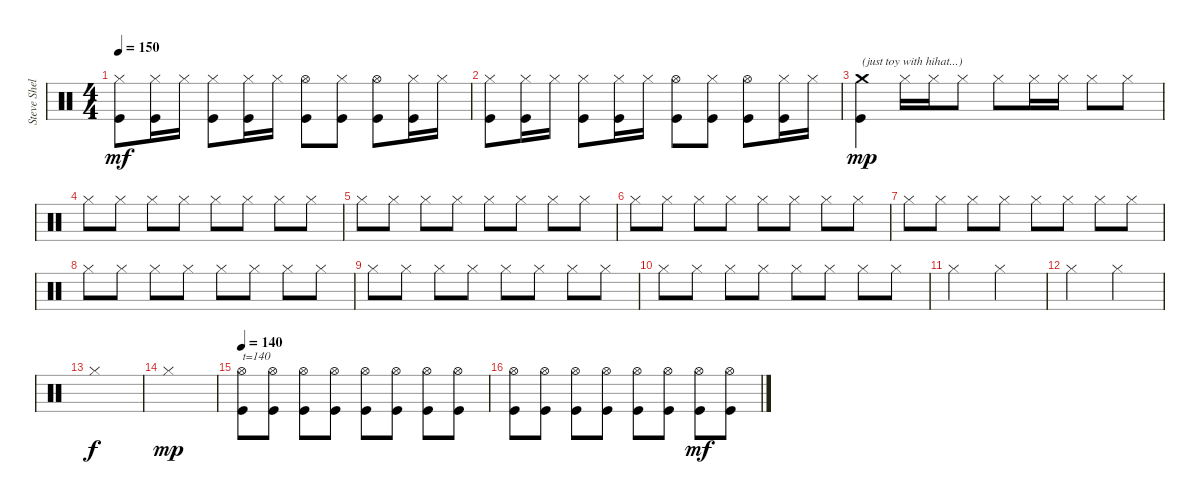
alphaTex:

\track ("Steve Shelley" "Steve Shel") {instrument percussion}
\staff {score}
\articulation defaults
\ts (4 4)
\tempo 150
\clef neutral
\ks c
("Hi-Hat (closed)" "Kick (hit)").8{dy mf} ("Hi-Hat (closed)" "Kick (hit)").16 "Hi-Hat (closed)".16 ("Hi-Hat (closed)" "Kick (hit)").8 ("Hi-Hat (closed)" "Kick (hit)").16 "Hi-Hat (closed)".16 ("Hi-Hat (open)" "Kick (hit)").8 ("Hi-Hat (closed)" "Kick (hit)").8 ("Hi-Hat (open)" "Kick (hit)").8 ("Hi-Hat (closed)" "Kick (hit)").16 "Hi-Hat (closed)".16 |
("Hi-Hat (closed)" "Kick (hit)").8 ("Hi-Hat (closed)" "Kick (hit)").16 "Hi-Hat (closed)".16 ("Hi-Hat (closed)" "Kick (hit)").8 ("Hi-Hat (closed)" "Kick (hit)").16 "Hi-Hat (closed)".16 ("Hi-Hat (open)" "Kick (hit)").8 ("Hi-Hat (closed)" "Kick (hit)").8 ("Hi-Hat (open)" "Kick (hit)").8 ("Hi-Hat (closed)" "Kick (hit)").16 "Hi-Hat (closed)".16 |
("Crash medium (hit)" "Kick (hit)").4{txt "(just toy with hihat...)" dy mp} "Hi-Hat (closed)".16 "Hi-Hat (closed)".16 "Hi-Hat (closed)".8 "Hi-Hat (closed)".8 "Hi-Hat (closed)".16 "Hi-Hat (closed)".16 "Hi-Hat (closed)".8 "Hi-Hat (closed)".8 |
"Hi-Hat (closed)".8 "Hi-Hat (closed)".8 "Hi-Hat (closed)".8 "Hi-Hat (closed)".8 "Hi-Hat (closed)".8 "Hi-Hat (closed)".8 "Hi-Hat (closed)".8 "Hi-Hat (closed)".8 |
"Hi-Hat (closed)".8 "Hi-Hat (closed)".8 "Hi-Hat (closed)".8 "Hi-Hat (closed)".8 "Hi-Hat (closed)".8 "Hi-Hat (closed)".8 "Hi-Hat (closed)".8 "Hi-Hat (closed)".8 |
"Hi-Hat (closed)".8 "Hi-Hat (closed)".8 "Hi-Hat (closed)".8 "Hi-Hat (closed)".8 "Hi-Hat (closed)".8 "Hi-Hat (closed)".8 "Hi-Hat (closed)".8 "Hi-Hat (closed)".8 |
"Hi-Hat (closed)".8 "Hi-Hat (closed)".8 "Hi-Hat (closed)".8 "Hi-Hat (closed)".8 "Hi-Hat (closed)".8 "Hi-Hat (closed)".8 "Hi-Hat (closed)".8 "Hi-Hat (closed)".8 |
"Hi-Hat (closed)".8 "Hi-Hat (closed)".8 "Hi-Hat (closed)".8 "Hi-Hat (closed)".8 "Hi-Hat (closed)".8 "Hi-Hat (closed)".8 "Hi-Hat (closed)".8 "Hi-Hat (closed)".8 |
"Hi-Hat (closed)".8 "Hi-Hat (closed)".8 "Hi-Hat (closed)".8 "Hi-Hat (closed)".8 "Hi-Hat (closed)".8 "Hi-Hat (closed)".8 "Hi-Hat (closed)".8 "Hi-Hat (closed)".8 |
"Hi-Hat (closed)".8 "Hi-Hat (closed)".8 "Hi-Hat (closed)".8 "Hi-Hat (closed)".8 "Hi-Hat (closed)".8 "Hi-Hat (closed)".8 "Hi-Hat (closed)".8 "Hi-Hat (closed)".8 |
"Hi-Hat (closed)".2 "Hi-Hat (closed)".2 |
"Hi-Hat (closed)".2 "Hi-Hat (closed)".2 |
"Hi-Hat (closed)".1{dy f} |
"Hi-Hat (closed)".1{dy mp} |
\tempo 140
("Hi-Hat (open)" "Kick (hit)").8{txt "t=140"} ("Hi-Hat (open)" "Kick (hit)").8 ("Hi-Hat (open)" "Kick (hit)").8 ("Hi-Hat (open)" "Kick (hit)").8 ("Hi-Hat (open)" "Kick (hit)").8 ("Hi-Hat (open)" "Kick (hit)").8 ("Hi-Hat (open)" "Kick (hit)").8 ("Hi-Hat (open)" "Kick (hit)").8 |
("Hi-Hat (open)" "Kick (hit)").8 ("Hi-Hat (open)" "Kick (hit)").8 ("Hi-Hat (open)" "Kick (hit)").8 ("Hi-Hat (open)" "Kick (hit)").8 ("Hi-Hat (open)" "Kick (hit)").8 ("Hi-Hat (open)" "Kick (hit)").8 ("Hi-Hat (open)" "Kick (hit)").8{dy mf} ("Hi-Hat (open)" "Kick (hit)").8
